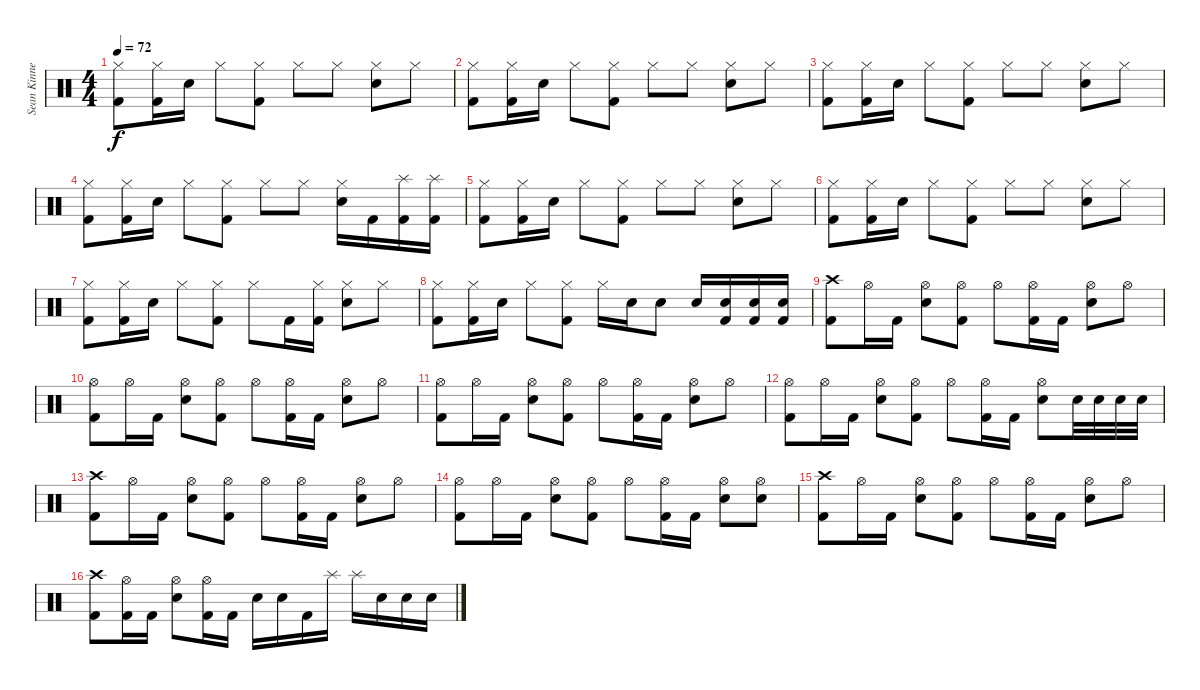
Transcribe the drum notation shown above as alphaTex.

\track ("Sean Kinney - Drums" "Sean Kinne") {instrument percussion}
\staff {score}
\articulation defaults
\ts (4 4)
\tempo 72
\clef neutral
\ks c
("Hi-Hat (closed)" "Kick (hit) 2").8{dy f} ("Hi-Hat (closed)" "Kick (hit) 2").16 "Electric Snare (hit)".16 "Hi-Hat (closed)".8 ("Hi-Hat (closed)" "Kick (hit) 2").8 "Hi-Hat (closed)".8 "Hi-Hat (closed)".8 ("Hi-Hat (closed)" "Electric Snare (hit)").8 "Hi-Hat (closed)".8 |
("Hi-Hat (closed)" "Kick (hit) 2").8 ("Hi-Hat (closed)" "Kick (hit) 2").16 "Electric Snare (hit)".16 "Hi-Hat (closed)".8 ("Hi-Hat (closed)" "Kick (hit) 2").8 "Hi-Hat (closed)".8 "Hi-Hat (closed)".8 ("Hi-Hat (closed)" "Electric Snare (hit)").8 "Hi-Hat (closed)".8 |
("Hi-Hat (closed)" "Kick (hit) 2").8 ("Hi-Hat (closed)" "Kick (hit) 2").16 "Electric Snare (hit)".16 "Hi-Hat (closed)".8 ("Hi-Hat (closed)" "Kick (hit) 2").8 "Hi-Hat (closed)".8 "Hi-Hat (closed)".8 ("Hi-Hat (closed)" "Electric Snare (hit)").8 "Hi-Hat (closed)".8 |
("Hi-Hat (closed)" "Kick (hit) 2").8 ("Hi-Hat (closed)" "Kick (hit) 2").16 "Electric Snare (hit)".16 "Hi-Hat (closed)".8 ("Hi-Hat (closed)" "Kick (hit) 2").8 "Hi-Hat (closed)".8 "Hi-Hat (closed)".8 ("Hi-Hat (closed)" "Electric Snare (hit)").16 "Kick (hit) 2".16 ("Splash (hit)" "Kick (hit) 2").16 ("Splash (hit)" "Kick (hit) 2").16 |
("Hi-Hat (closed)" "Kick (hit) 2").8 ("Hi-Hat (closed)" "Kick (hit) 2").16 "Electric Snare (hit)".16 "Hi-Hat (closed)".8 ("Hi-Hat (closed)" "Kick (hit) 2").8 "Hi-Hat (closed)".8 "Hi-Hat (closed)".8 ("Hi-Hat (closed)" "Electric Snare (hit)").8 "Hi-Hat (closed)".8 |
("Hi-Hat (closed)" "Kick (hit) 2").8 ("Hi-Hat (closed)" "Kick (hit) 2").16 "Electric Snare (hit)".16 "Hi-Hat (closed)".8 ("Hi-Hat (closed)" "Kick (hit) 2").8 "Hi-Hat (closed)".8 "Hi-Hat (closed)".8 ("Hi-Hat (closed)" "Electric Snare (hit)").8 "Hi-Hat (closed)".8 |
("Hi-Hat (closed)" "Kick (hit) 2").8 ("Hi-Hat (closed)" "Kick (hit) 2").16 "Electric Snare (hit)".16 "Hi-Hat (closed)".8 ("Hi-Hat (closed)" "Kick (hit) 2").8 "Hi-Hat (closed)".8 "Kick (hit) 2".16 ("Hi-Hat (closed)" "Kick (hit) 2").16 ("Hi-Hat (closed)" "Electric Snare (hit)").8 "Hi-Hat (closed)".8 |
("Hi-Hat (closed)" "Kick (hit) 2").8 ("Hi-Hat (closed)" "Kick (hit) 2").16 "Electric Snare (hit)".16 "Hi-Hat (closed)".8 ("Hi-Hat (closed)" "Kick (hit) 2").8 "Hi-Hat (closed)".16 "Electric Snare (hit)".16 "Electric Snare (hit)".8 "Electric Snare (hit)".16 ("Electric Snare (hit)" "Kick (hit) 2").16 ("Electric Snare (hit)" "Kick (hit) 2").16 ("Electric Snare (hit)" "Kick (hit) 2").16 |
("Crash high (hit)" "Kick (hit) 2").8 "Hi-Hat (open)".16 "Kick (hit) 2".16 ("Hi-Hat (open)" "Electric Snare (hit)").8 ("Hi-Hat (open)" "Kick (hit) 2").8 "Hi-Hat (open)".8 ("Hi-Hat (open)" "Kick (hit) 2").16 "Kick (hit) 2".16 ("Hi-Hat (open)" "Electric Snare (hit)").8 "Hi-Hat (open)".8 |
("Hi-Hat (open)" "Kick (hit) 2").8 "Hi-Hat (open)".16 "Kick (hit) 2".16 ("Hi-Hat (open)" "Electric Snare (hit)").8 ("Hi-Hat (open)" "Kick (hit) 2").8 "Hi-Hat (open)".8 ("Hi-Hat (open)" "Kick (hit) 2").16 "Kick (hit) 2".16 ("Hi-Hat (open)" "Electric Snare (hit)").8 "Hi-Hat (open)".8 |
("Hi-Hat (open)" "Kick (hit) 2").8 "Hi-Hat (open)".16 "Kick (hit) 2".16 ("Hi-Hat (open)" "Electric Snare (hit)").8 ("Hi-Hat (open)" "Kick (hit) 2").8 "Hi-Hat (open)".8 ("Hi-Hat (open)" "Kick (hit) 2").16 "Kick (hit) 2".16 ("Hi-Hat (open)" "Electric Snare (hit)").8 "Hi-Hat (open)".8 |
("Hi-Hat (open)" "Kick (hit) 2").8 "Hi-Hat (open)".16 "Kick (hit) 2".16 ("Hi-Hat (open)" "Electric Snare (hit)").8 ("Hi-Hat (open)" "Kick (hit) 2").8 "Hi-Hat (open)".8 ("Hi-Hat (open)" "Kick (hit) 2").16 "Kick (hit) 2".16 ("Hi-Hat (open)" "Electric Snare (hit)").8 "Electric Snare (hit)".32 "Electric Snare (hit)".32 "Electric Snare (hit)".32 "Electric Snare (hit)".32 |
("Crash high (hit)" "Kick (hit) 2").8 "Hi-Hat (open)".16 "Kick (hit) 2".16 ("Hi-Hat (open)" "Electric Snare (hit)").8 ("Hi-Hat (open)" "Kick (hit) 2").8 "Hi-Hat (open)".8 ("Hi-Hat (open)" "Kick (hit) 2").16 "Kick (hit) 2".16 ("Hi-Hat (open)" "Electric Snare (hit)").8 "Hi-Hat (open)".8 |
("Hi-Hat (open)" "Kick (hit) 2").8 "Hi-Hat (open)".16 "Kick (hit) 2".16 ("Hi-Hat (open)" "Electric Snare (hit)").8 ("Hi-Hat (open)" "Kick (hit) 2").8 "Hi-Hat (open)".8 ("Hi-Hat (open)" "Kick (hit) 2").16 "Kick (hit) 2".16 ("Hi-Hat (open)" "Electric Snare (hit)").8 ("Hi-Hat (open)" "Electric Snare (hit)").8 |
("Crash high (hit)" "Kick (hit) 2").8 "Hi-Hat (open)".16 "Kick (hit) 2".16 ("Hi-Hat (open)" "Electric Snare (hit)").8 ("Hi-Hat (open)" "Kick (hit) 2").8 "Hi-Hat (open)".8 ("Hi-Hat (open)" "Kick (hit) 2").16 "Kick (hit) 2".16 ("Hi-Hat (open)" "Electric Snare (hit)").8 "Hi-Hat (open)".8 |
("Crash high (hit)" "Kick (hit) 2").8 ("Hi-Hat (open)" "Kick (hit) 2").16 "Kick (hit) 2".16 ("Hi-Hat (open)" "Electric Snare (hit)").8 ("Hi-Hat (open)" "Kick (hit) 2").16 "Kick (hit) 2".16 "Electric Snare (hit)".16 "Electric Snare (hit)".16 "Kick (hit) 2".16 "Splash (hit)".16 "Splash (hit)".16 "Electric Snare (hit)".16 "Electric Snare (hit)".16 "Electric Snare (hit)".16
